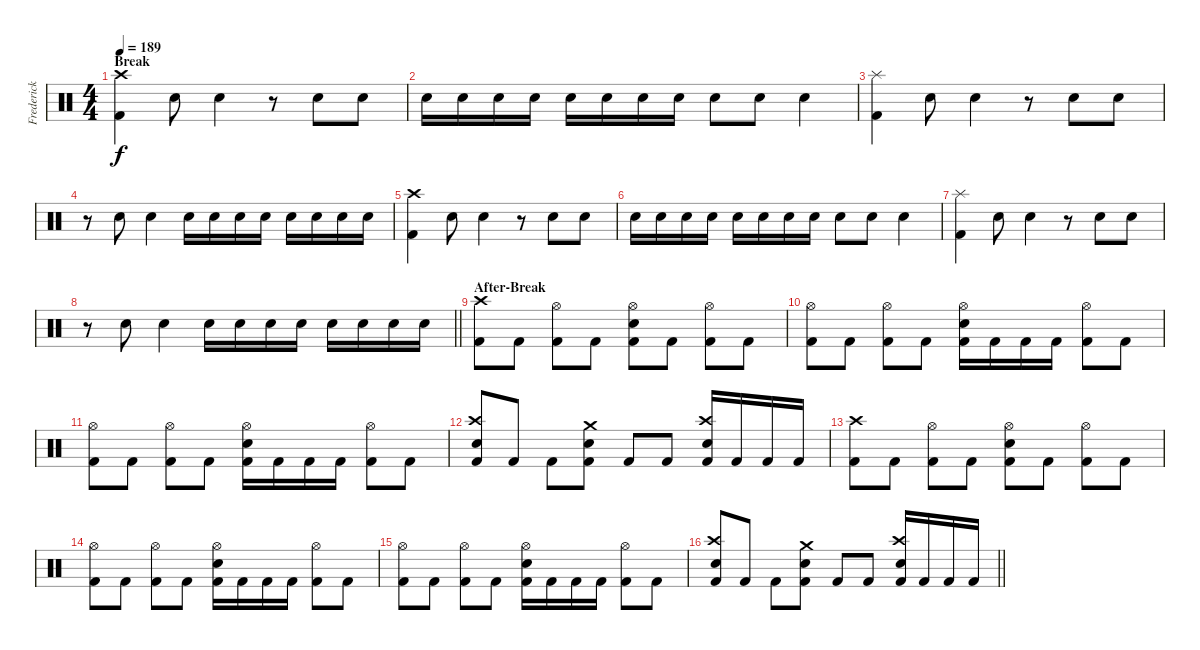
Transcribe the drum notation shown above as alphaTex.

\track ("Frederick Ehmke" "Frederick ") {instrument percussion}
\staff {score}
\articulation defaults
\ts (4 4)
\section ("" "Break")
\tempo 189
\clef neutral
\ks c
("Kick (hit) 2" "Crash high (hit)").4{dy f} "Electric Snare (hit)".8 "Electric Snare (hit)".4 r.8 "Electric Snare (hit)".8 "Electric Snare (hit)".8 |
"Electric Snare (hit)".16{volume 4} "Electric Snare (hit)".16 "Electric Snare (hit)".16 "Electric Snare (hit)".16 "Electric Snare (hit)".16 "Electric Snare (hit)".16 "Electric Snare (hit)".16 "Electric Snare (hit)".16 "Electric Snare (hit)".8{volume 14} "Electric Snare (hit)".8 "Electric Snare (hit)".4 |
("Kick (hit) 2" "Splash (hit)").4 "Electric Snare (hit)".8 "Electric Snare (hit)".4 r.8 "Electric Snare (hit)".8 "Electric Snare (hit)".8 |
r.8 "Electric Snare (hit)".8 "Electric Snare (hit)".4 "Electric Snare (hit)".16{volume 4} "Electric Snare (hit)".16 "Electric Snare (hit)".16 "Electric Snare (hit)".16 "Electric Snare (hit)".16 "Electric Snare (hit)".16 "Electric Snare (hit)".16 "Electric Snare (hit)".16 |
("Kick (hit) 2" "Crash high (hit)").4{volume 14} "Electric Snare (hit)".8 "Electric Snare (hit)".4 r.8 "Electric Snare (hit)".8 "Electric Snare (hit)".8 |
"Electric Snare (hit)".16{volume 4} "Electric Snare (hit)".16 "Electric Snare (hit)".16 "Electric Snare (hit)".16 "Electric Snare (hit)".16 "Electric Snare (hit)".16 "Electric Snare (hit)".16 "Electric Snare (hit)".16 "Electric Snare (hit)".8{volume 14} "Electric Snare (hit)".8 "Electric Snare (hit)".4 |
("Kick (hit) 2" "Splash (hit)").4 "Electric Snare (hit)".8 "Electric Snare (hit)".4 r.8 "Electric Snare (hit)".8 "Electric Snare (hit)".8 |
\barLineRight lightlight
r.8 "Electric Snare (hit)".8 "Electric Snare (hit)".4 "Electric Snare (hit)".16{volume 4} "Electric Snare (hit)".16 "Electric Snare (hit)".16 "Electric Snare (hit)".16 "Electric Snare (hit)".16 "Electric Snare (hit)".16 "Electric Snare (hit)".16 "Electric Snare (hit)".16 |
\section ("" "After-Break")
("Kick (hit) 2" "Crash high (hit)").8{volume 14} "Kick (hit) 2".8 ("Kick (hit) 2" "Hi-Hat (open)").8 "Kick (hit) 2".8 ("Electric Snare (hit)" "Kick (hit) 2" "Hi-Hat (open)").8 "Kick (hit) 2".8 ("Kick (hit) 2" "Hi-Hat (open)").8 "Kick (hit) 2".8 |
("Kick (hit) 2" "Hi-Hat (open)").8 "Kick (hit) 2".8 ("Kick (hit) 2" "Hi-Hat (open)").8 "Kick (hit) 2".8 ("Electric Snare (hit)" "Kick (hit) 2" "Hi-Hat (open)").16 "Kick (hit) 2".16 "Kick (hit) 2".16 "Kick (hit) 2".16 ("Kick (hit) 2" "Hi-Hat (open)").8 "Kick (hit) 2".8 |
("Kick (hit) 2" "Hi-Hat (open)").8 "Kick (hit) 2".8 ("Kick (hit) 2" "Hi-Hat (open)").8 "Kick (hit) 2".8 ("Electric Snare (hit)" "Kick (hit) 2" "Hi-Hat (open)").16 "Kick (hit) 2".16 "Kick (hit) 2".16 "Kick (hit) 2".16 ("Kick (hit) 2" "Hi-Hat (open)").8 "Kick (hit) 2".8 |
("Electric Snare (hit)" "Kick (hit) 2" "Crash high (hit)").8 "Kick (hit) 2".8 "Kick (hit) 2".8 ("Electric Snare (hit)" "Kick (hit) 2" "Crash medium (hit)").8 "Kick (hit) 2".8 "Kick (hit) 2".8 ("Electric Snare (hit)" "Kick (hit) 2" "Crash high (hit)").16 "Kick (hit) 2".16 "Kick (hit) 2".16 "Kick (hit) 2".16 |
("Kick (hit) 2" "Crash high (hit)").8 "Kick (hit) 2".8 ("Kick (hit) 2" "Hi-Hat (open)").8 "Kick (hit) 2".8 ("Electric Snare (hit)" "Kick (hit) 2" "Hi-Hat (open)").8 "Kick (hit) 2".8 ("Kick (hit) 2" "Hi-Hat (open)").8 "Kick (hit) 2".8 |
("Kick (hit) 2" "Hi-Hat (open)").8 "Kick (hit) 2".8 ("Kick (hit) 2" "Hi-Hat (open)").8 "Kick (hit) 2".8 ("Electric Snare (hit)" "Kick (hit) 2" "Hi-Hat (open)").16 "Kick (hit) 2".16 "Kick (hit) 2".16 "Kick (hit) 2".16 ("Kick (hit) 2" "Hi-Hat (open)").8 "Kick (hit) 2".8 |
("Kick (hit) 2" "Hi-Hat (open)").8 "Kick (hit) 2".8 ("Kick (hit) 2" "Hi-Hat (open)").8 "Kick (hit) 2".8 ("Electric Snare (hit)" "Kick (hit) 2" "Hi-Hat (open)").16 "Kick (hit) 2".16 "Kick (hit) 2".16 "Kick (hit) 2".16 ("Kick (hit) 2" "Hi-Hat (open)").8 "Kick (hit) 2".8 |
\barLineRight lightlight
("Electric Snare (hit)" "Kick (hit) 2" "Crash high (hit)").8 "Kick (hit) 2".8 "Kick (hit) 2".8 ("Electric Snare (hit)" "Kick (hit) 2" "Crash medium (hit)").8 "Kick (hit) 2".8 "Kick (hit) 2".8 ("Electric Snare (hit)" "Kick (hit) 2" "Crash high (hit)").16 "Kick (hit) 2".16 "Kick (hit) 2".16 "Kick (hit) 2".16
